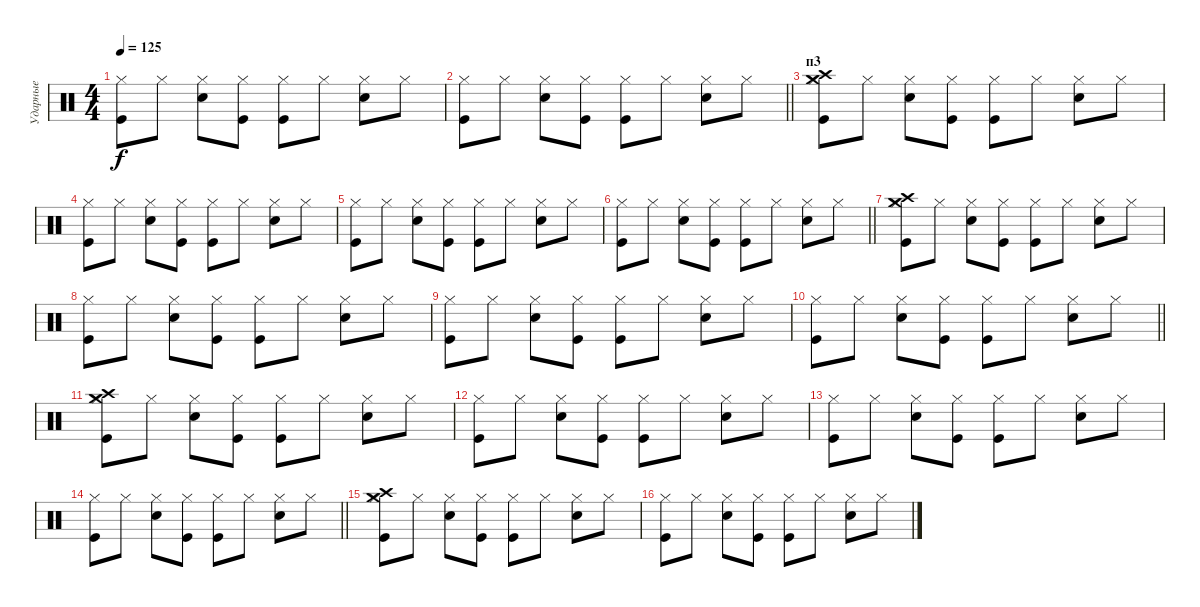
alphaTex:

\track ("Ударные" "Ударные") {instrument percussion}
\staff {score}
\articulation defaults
\ts (4 4)
\tempo 125
\clef neutral
\ks c
("Kick (hit)" "Hi-Hat (closed)").8{dy f} "Hi-Hat (closed)".8 ("Snare (hit) 2" "Hi-Hat (closed)").8 ("Kick (hit)" "Hi-Hat (closed)").8 ("Kick (hit)" "Hi-Hat (closed)").8 "Hi-Hat (closed)".8 ("Snare (hit) 2" "Hi-Hat (closed)").8 "Hi-Hat (closed)".8 |
\barLineRight lightlight
("Kick (hit)" "Hi-Hat (closed)").8 "Hi-Hat (closed)".8 ("Snare (hit) 2" "Hi-Hat (closed)").8 ("Kick (hit)" "Hi-Hat (closed)").8 ("Kick (hit)" "Hi-Hat (closed)").8 "Hi-Hat (closed)".8 ("Snare (hit) 2" "Hi-Hat (closed)").8 "Hi-Hat (closed)".8 |
\section ("" "п3")
("Kick (hit)" "Crash high (hit)" "Crash medium (hit)" "Hi-Hat (closed)").8 "Hi-Hat (closed)".8 ("Snare (hit) 2" "Hi-Hat (closed)").8 ("Kick (hit)" "Hi-Hat (closed)").8 ("Kick (hit)" "Hi-Hat (closed)").8 "Hi-Hat (closed)".8 ("Snare (hit) 2" "Hi-Hat (closed)").8 "Hi-Hat (closed)".8 |
("Kick (hit)" "Hi-Hat (closed)").8 "Hi-Hat (closed)".8 ("Snare (hit) 2" "Hi-Hat (closed)").8 ("Kick (hit)" "Hi-Hat (closed)").8 ("Kick (hit)" "Hi-Hat (closed)").8 "Hi-Hat (closed)".8 ("Snare (hit) 2" "Hi-Hat (closed)").8 "Hi-Hat (closed)".8 |
("Kick (hit)" "Hi-Hat (closed)").8 "Hi-Hat (closed)".8 ("Snare (hit) 2" "Hi-Hat (closed)").8 ("Kick (hit)" "Hi-Hat (closed)").8 ("Kick (hit)" "Hi-Hat (closed)").8 "Hi-Hat (closed)".8 ("Snare (hit) 2" "Hi-Hat (closed)").8 "Hi-Hat (closed)".8 |
\barLineRight lightlight
("Kick (hit)" "Hi-Hat (closed)").8 "Hi-Hat (closed)".8 ("Snare (hit) 2" "Hi-Hat (closed)").8 ("Kick (hit)" "Hi-Hat (closed)").8 ("Kick (hit)" "Hi-Hat (closed)").8 "Hi-Hat (closed)".8 ("Snare (hit) 2" "Hi-Hat (closed)").8 "Hi-Hat (closed)".8 |
("Kick (hit)" "Crash high (hit)" "Crash medium (hit)" "Hi-Hat (closed)").8 "Hi-Hat (closed)".8 ("Snare (hit) 2" "Hi-Hat (closed)").8 ("Kick (hit)" "Hi-Hat (closed)").8 ("Kick (hit)" "Hi-Hat (closed)").8 "Hi-Hat (closed)".8 ("Snare (hit) 2" "Hi-Hat (closed)").8 "Hi-Hat (closed)".8 |
("Kick (hit)" "Hi-Hat (closed)").8 "Hi-Hat (closed)".8 ("Snare (hit) 2" "Hi-Hat (closed)").8 ("Kick (hit)" "Hi-Hat (closed)").8 ("Kick (hit)" "Hi-Hat (closed)").8 "Hi-Hat (closed)".8 ("Snare (hit) 2" "Hi-Hat (closed)").8 "Hi-Hat (closed)".8 |
("Kick (hit)" "Hi-Hat (closed)").8 "Hi-Hat (closed)".8 ("Snare (hit) 2" "Hi-Hat (closed)").8 ("Kick (hit)" "Hi-Hat (closed)").8 ("Kick (hit)" "Hi-Hat (closed)").8 "Hi-Hat (closed)".8 ("Snare (hit) 2" "Hi-Hat (closed)").8 "Hi-Hat (closed)".8 |
\barLineRight lightlight
("Kick (hit)" "Hi-Hat (closed)").8 "Hi-Hat (closed)".8 ("Snare (hit) 2" "Hi-Hat (closed)").8 ("Kick (hit)" "Hi-Hat (closed)").8 ("Kick (hit)" "Hi-Hat (closed)").8 "Hi-Hat (closed)".8 ("Snare (hit) 2" "Hi-Hat (closed)").8 "Hi-Hat (closed)".8 |
("Kick (hit)" "Crash high (hit)" "Crash medium (hit)" "Hi-Hat (closed)").8 "Hi-Hat (closed)".8 ("Snare (hit) 2" "Hi-Hat (closed)").8 ("Kick (hit)" "Hi-Hat (closed)").8 ("Kick (hit)" "Hi-Hat (closed)").8 "Hi-Hat (closed)".8 ("Snare (hit) 2" "Hi-Hat (closed)").8 "Hi-Hat (closed)".8 |
("Kick (hit)" "Hi-Hat (closed)").8 "Hi-Hat (closed)".8 ("Snare (hit) 2" "Hi-Hat (closed)").8 ("Kick (hit)" "Hi-Hat (closed)").8 ("Kick (hit)" "Hi-Hat (closed)").8 "Hi-Hat (closed)".8 ("Snare (hit) 2" "Hi-Hat (closed)").8 "Hi-Hat (closed)".8 |
("Kick (hit)" "Hi-Hat (closed)").8 "Hi-Hat (closed)".8 ("Snare (hit) 2" "Hi-Hat (closed)").8 ("Kick (hit)" "Hi-Hat (closed)").8 ("Kick (hit)" "Hi-Hat (closed)").8 "Hi-Hat (closed)".8 ("Snare (hit) 2" "Hi-Hat (closed)").8 "Hi-Hat (closed)".8 |
\barLineRight lightlight
("Kick (hit)" "Hi-Hat (closed)").8 "Hi-Hat (closed)".8 ("Snare (hit) 2" "Hi-Hat (closed)").8 ("Kick (hit)" "Hi-Hat (closed)").8 ("Kick (hit)" "Hi-Hat (closed)").8 "Hi-Hat (closed)".8 ("Snare (hit) 2" "Hi-Hat (closed)").8 "Hi-Hat (closed)".8 |
("Kick (hit)" "Crash high (hit)" "Crash medium (hit)" "Hi-Hat (closed)").8 "Hi-Hat (closed)".8 ("Snare (hit) 2" "Hi-Hat (closed)").8 ("Kick (hit)" "Hi-Hat (closed)").8 ("Kick (hit)" "Hi-Hat (closed)").8 "Hi-Hat (closed)".8 ("Snare (hit) 2" "Hi-Hat (closed)").8 "Hi-Hat (closed)".8 |
("Kick (hit)" "Hi-Hat (closed)").8 "Hi-Hat (closed)".8 ("Snare (hit) 2" "Hi-Hat (closed)").8 ("Kick (hit)" "Hi-Hat (closed)").8 ("Kick (hit)" "Hi-Hat (closed)").8 "Hi-Hat (closed)".8 ("Snare (hit) 2" "Hi-Hat (closed)").8 "Hi-Hat (closed)".8
